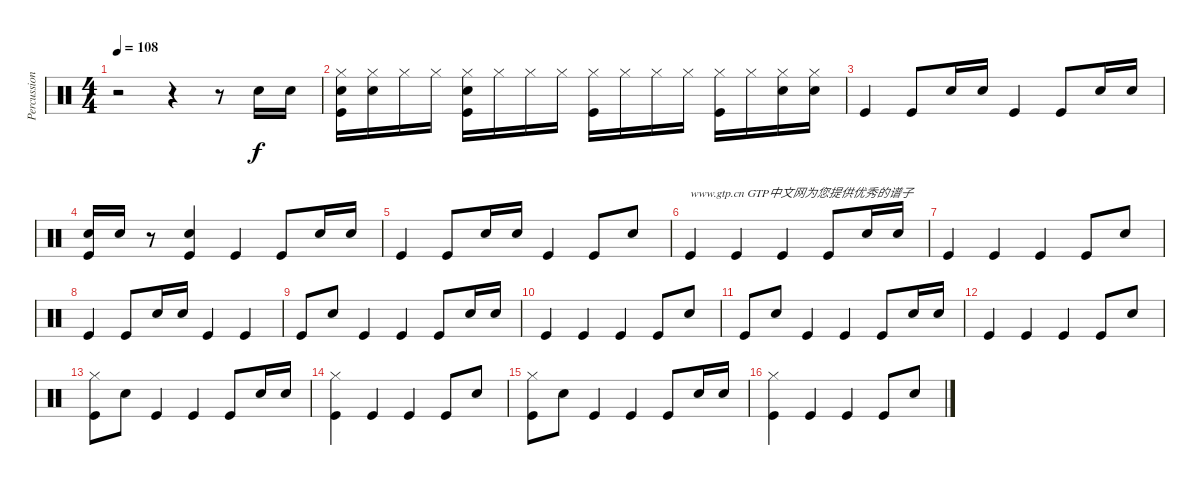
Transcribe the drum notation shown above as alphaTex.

\track ("Percussion" "Percussion") {instrument percussion}
\staff {score}
\articulation defaults
\ts (4 4)
\tempo 108
\clef neutral
\ks c
r.2{dy f} r.4 r.8 "Snare (hit) 2".16 "Snare (hit) 2".16 |
("Hi-Hat (closed)" "Snare (hit) 2" "Kick (hit)").16 ("Hi-Hat (closed)" "Snare (hit) 2").16 "Hi-Hat (closed)".16 "Hi-Hat (closed)".16 ("Hi-Hat (closed)" "Snare (hit) 2" "Kick (hit)").16 "Hi-Hat (closed)".16 "Hi-Hat (closed)".16 "Hi-Hat (closed)".16 ("Hi-Hat (closed)" "Kick (hit)").16 "Hi-Hat (closed)".16 "Hi-Hat (closed)".16 "Hi-Hat (closed)".16 ("Hi-Hat (closed)" "Kick (hit)").16 "Hi-Hat (closed)".16 ("Hi-Hat (closed)" "Snare (hit) 2").16 ("Hi-Hat (closed)" "Snare (hit) 2").16 |
"Kick (hit)".4 "Kick (hit)".8 "Snare (hit) 2".16 "Snare (hit) 2".16 "Kick (hit)".4 "Kick (hit)".8 "Snare (hit) 2".16 "Snare (hit) 2".16 |
("Snare (hit) 2" "Kick (hit)").16 "Snare (hit) 2".16 r.8 ("Snare (hit) 2" "Kick (hit)").4 "Kick (hit)".4 "Kick (hit)".8 "Snare (hit) 2".16 "Snare (hit) 2".16 |
"Kick (hit)".4 "Kick (hit)".8 "Snare (hit) 2".16 "Snare (hit) 2".16 "Kick (hit)".4 "Kick (hit)".8 "Snare (hit) 2".8 |
"Kick (hit)".4{txt "www.gtp.cn GTP中文网为您提供优秀的谱子"} "Kick (hit)".4 "Kick (hit)".4 "Kick (hit)".8 "Snare (hit) 2".16 "Snare (hit) 2".16 |
"Kick (hit)".4 "Kick (hit)".4 "Kick (hit)".4 "Kick (hit)".8 "Snare (hit) 2".8 |
"Kick (hit)".4 "Kick (hit)".8 "Snare (hit) 2".16 "Snare (hit) 2".16 "Kick (hit)".4 "Kick (hit)".4 |
"Kick (hit)".8 "Snare (hit) 2".8 "Kick (hit)".4 "Kick (hit)".4 "Kick (hit)".8 "Snare (hit) 2".16 "Snare (hit) 2".16 |
"Kick (hit)".4 "Kick (hit)".4 "Kick (hit)".4 "Kick (hit)".8 "Snare (hit) 2".8 |
"Kick (hit)".8 "Snare (hit) 2".8 "Kick (hit)".4 "Kick (hit)".4 "Kick (hit)".8 "Snare (hit) 2".16 "Snare (hit) 2".16 |
"Kick (hit)".4 "Kick (hit)".4 "Kick (hit)".4 "Kick (hit)".8 "Snare (hit) 2".8 |
("Hi-Hat (closed)" "Kick (hit)").8 "Snare (hit) 2".8 "Kick (hit)".4 "Kick (hit)".4 "Kick (hit)".8 "Snare (hit) 2".16 "Snare (hit) 2".16 |
("Hi-Hat (closed)" "Kick (hit)").4 "Kick (hit)".4 "Kick (hit)".4 "Kick (hit)".8 "Snare (hit) 2".8 |
("Hi-Hat (closed)" "Kick (hit)").8 "Snare (hit) 2".8 "Kick (hit)".4 "Kick (hit)".4 "Kick (hit)".8 "Snare (hit) 2".16 "Snare (hit) 2".16 |
("Hi-Hat (closed)" "Kick (hit)").4 "Kick (hit)".4 "Kick (hit)".4 "Kick (hit)".8 "Snare (hit) 2".8
